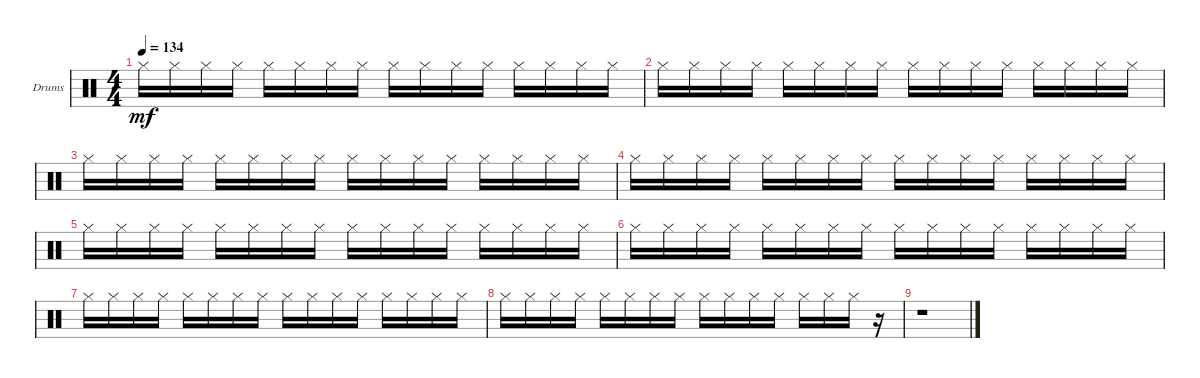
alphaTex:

\bracketExtendMode groupsimilarinstruments
\firstSystemTrackNameOrientation horizontal
\otherSystemsTrackNameOrientation horizontal
\track ("Drums" "Drums") {instrument percussion}
\staff {score}
\articulation defaults
\ts (4 4)
\tempo 134
\clef neutral
\ks c "Hi-Hat (closed)".16{dy mf} "Hi-Hat (closed)".16 "Hi-Hat (closed)".16 "Hi-Hat (closed)".16 "Hi-Hat (closed)".16 "Hi-Hat (closed)".16 "Hi-Hat (closed)".16 "Hi-Hat (closed)".16 "Hi-Hat (closed)".16 "Hi-Hat (closed)".16 "Hi-Hat (closed)".16 "Hi-Hat (closed)".16 "Hi-Hat (closed)".16 "Hi-Hat (closed)".16 "Hi-Hat (closed)".16 "Hi-Hat (closed)".16
|
"Hi-Hat (closed)".16 "Hi-Hat (closed)".16 "Hi-Hat (closed)".16 "Hi-Hat (closed)".16 "Hi-Hat (closed)".16 "Hi-Hat (closed)".16 "Hi-Hat (closed)".16 "Hi-Hat (closed)".16 "Hi-Hat (closed)".16 "Hi-Hat (closed)".16 "Hi-Hat (closed)".16 "Hi-Hat (closed)".16 "Hi-Hat (closed)".16 "Hi-Hat (closed)".16 "Hi-Hat (closed)".16 "Hi-Hat (closed)".16 |
"Hi-Hat (closed)".16 "Hi-Hat (closed)".16 "Hi-Hat (closed)".16 "Hi-Hat (closed)".16 "Hi-Hat (closed)".16 "Hi-Hat (closed)".16 "Hi-Hat (closed)".16 "Hi-Hat (closed)".16 "Hi-Hat (closed)".16 "Hi-Hat (closed)".16 "Hi-Hat (closed)".16 "Hi-Hat (closed)".16 "Hi-Hat (closed)".16 "Hi-Hat (closed)".16 "Hi-Hat (closed)".16 "Hi-Hat (closed)".16 |
"Hi-Hat (closed)".16 "Hi-Hat (closed)".16 "Hi-Hat (closed)".16 "Hi-Hat (closed)".16 "Hi-Hat (closed)".16 "Hi-Hat (closed)".16 "Hi-Hat (closed)".16 "Hi-Hat (closed)".16 "Hi-Hat (closed)".16 "Hi-Hat (closed)".16 "Hi-Hat (closed)".16 "Hi-Hat (closed)".16 "Hi-Hat (closed)".16 "Hi-Hat (closed)".16 "Hi-Hat (closed)".16 "Hi-Hat (closed)".16 |
"Hi-Hat (closed)".16 "Hi-Hat (closed)".16 "Hi-Hat (closed)".16 "Hi-Hat (closed)".16 "Hi-Hat (closed)".16 "Hi-Hat (closed)".16 "Hi-Hat (closed)".16 "Hi-Hat (closed)".16 "Hi-Hat (closed)".16 "Hi-Hat (closed)".16 "Hi-Hat (closed)".16 "Hi-Hat (closed)".16 "Hi-Hat (closed)".16 "Hi-Hat (closed)".16 "Hi-Hat (closed)".16 "Hi-Hat (closed)".16 |
"Hi-Hat (closed)".16 "Hi-Hat (closed)".16 "Hi-Hat (closed)".16 "Hi-Hat (closed)".16 "Hi-Hat (closed)".16 "Hi-Hat (closed)".16 "Hi-Hat (closed)".16 "Hi-Hat (closed)".16 "Hi-Hat (closed)".16 "Hi-Hat (closed)".16 "Hi-Hat (closed)".16 "Hi-Hat (closed)".16 "Hi-Hat (closed)".16 "Hi-Hat (closed)".16 "Hi-Hat (closed)".16 "Hi-Hat (closed)".16 |
"Hi-Hat (closed)".16 "Hi-Hat (closed)".16 "Hi-Hat (closed)".16 "Hi-Hat (closed)".16 "Hi-Hat (closed)".16 "Hi-Hat (closed)".16 "Hi-Hat (closed)".16 "Hi-Hat (closed)".16 "Hi-Hat (closed)".16 "Hi-Hat (closed)".16 "Hi-Hat (closed)".16 "Hi-Hat (closed)".16 "Hi-Hat (closed)".16 "Hi-Hat (closed)".16 "Hi-Hat (closed)".16 "Hi-Hat (closed)".16 |
"Hi-Hat (closed)".16 "Hi-Hat (closed)".16 "Hi-Hat (closed)".16 "Hi-Hat (closed)".16 "Hi-Hat (closed)".16 "Hi-Hat (closed)".16 "Hi-Hat (closed)".16 "Hi-Hat (closed)".16 "Hi-Hat (closed)".16 "Hi-Hat (closed)".16 "Hi-Hat (closed)".16 "Hi-Hat (closed)".16 "Hi-Hat (closed)".16 "Hi-Hat (closed)".16 "Hi-Hat (closed)".16 r.16 |
r.1
